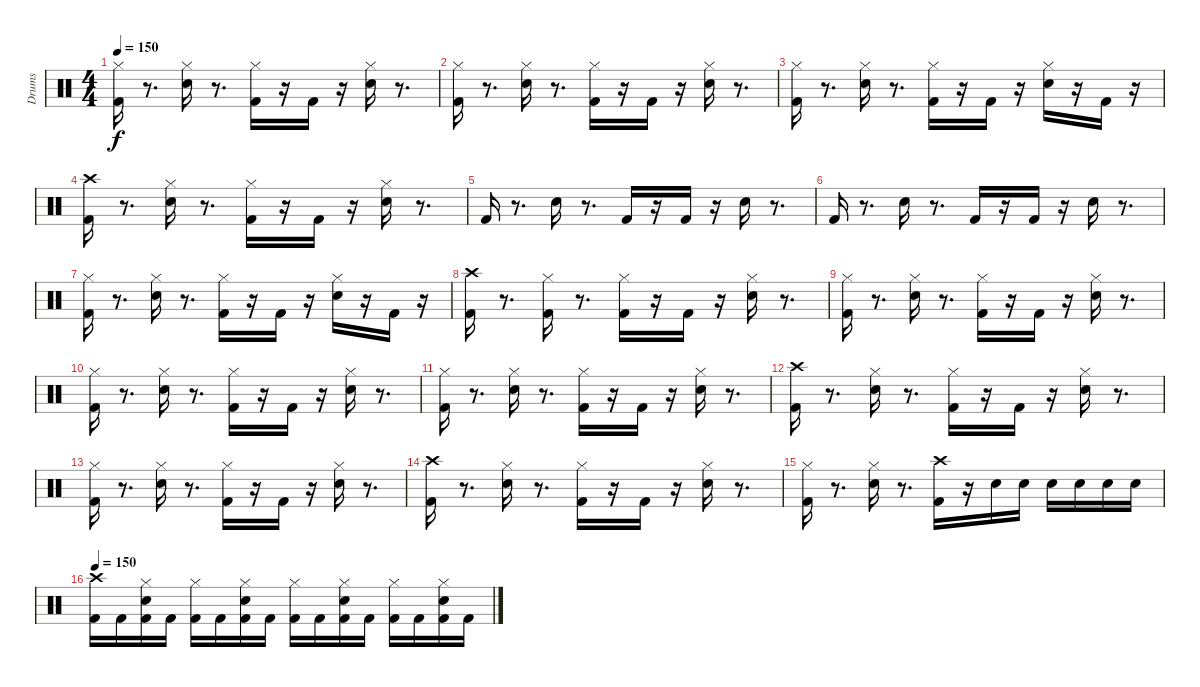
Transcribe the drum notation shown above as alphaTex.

\track ("Drums" "Drums") {instrument percussion}
\staff {score}
\articulation defaults
\ts (4 4)
\tempo 150
\clef neutral
\ks c
("Hi-Hat (closed)" "Kick (hit) 2").16{dy f} r.8{d} ("Hi-Hat (closed)" "Electric Snare (hit)").16 r.8{d} ("Hi-Hat (closed)" "Kick (hit) 2").16 r.16 "Kick (hit) 2".16 r.16 ("Hi-Hat (closed)" "Electric Snare (hit)").16 r.8{d} |
("Hi-Hat (closed)" "Kick (hit) 2").16 r.8{d} ("Hi-Hat (closed)" "Electric Snare (hit)").16 r.8{d} ("Hi-Hat (closed)" "Kick (hit) 2").16 r.16 "Kick (hit) 2".16 r.16 ("Hi-Hat (closed)" "Electric Snare (hit)").16 r.8{d} |
("Hi-Hat (closed)" "Kick (hit) 2").16 r.8{d} ("Hi-Hat (closed)" "Electric Snare (hit)").16 r.8{d} ("Hi-Hat (closed)" "Kick (hit) 2").16 r.16 "Kick (hit) 2".16 r.16 ("Hi-Hat (closed)" "Electric Snare (hit)").16 r.16 "Kick (hit) 2".16 r.16 |
("Crash high (hit)" "Kick (hit) 2").16 r.8{d} ("Hi-Hat (closed)" "Electric Snare (hit)").16 r.8{d} ("Hi-Hat (closed)" "Kick (hit) 2").16 r.16 "Kick (hit) 2".16 r.16 ("Hi-Hat (closed)" "Electric Snare (hit)").16 r.8{d} |
"Kick (hit) 2".16 r.8{d} "Electric Snare (hit)".16 r.8{d} "Kick (hit) 2".16 r.16 "Kick (hit) 2".16 r.16 "Electric Snare (hit)".16 r.8{d} |
"Kick (hit) 2".16 r.8{d} "Electric Snare (hit)".16 r.8{d} "Kick (hit) 2".16 r.16 "Kick (hit) 2".16 r.16 "Electric Snare (hit)".16 r.8{d} |
("Hi-Hat (closed)" "Kick (hit) 2").16 r.8{d} ("Hi-Hat (closed)" "Electric Snare (hit)").16 r.8{d} ("Hi-Hat (closed)" "Kick (hit) 2").16 r.16 "Kick (hit) 2".16 r.16 ("Hi-Hat (closed)" "Electric Snare (hit)").16 r.16 "Kick (hit) 2".16 r.16 |
("Crash high (hit)" "Kick (hit) 2").16 r.8{d} ("Hi-Hat (closed)" "Kick (hit) 2").16 r.8{d} ("Hi-Hat (closed)" "Kick (hit) 2").16 r.16 "Kick (hit) 2".16 r.16 ("Hi-Hat (closed)" "Electric Snare (hit)").16 r.8{d} |
("Hi-Hat (closed)" "Kick (hit) 2").16 r.8{d} ("Hi-Hat (closed)" "Electric Snare (hit)").16 r.8{d} ("Hi-Hat (closed)" "Kick (hit) 2").16 r.16 "Kick (hit) 2".16 r.16 ("Hi-Hat (closed)" "Electric Snare (hit)").16 r.8{d} |
("Hi-Hat (closed)" "Kick (hit) 2").16 r.8{d} ("Hi-Hat (closed)" "Electric Snare (hit)").16 r.8{d} ("Hi-Hat (closed)" "Kick (hit) 2").16 r.16 "Kick (hit) 2".16 r.16 ("Hi-Hat (closed)" "Electric Snare (hit)").16 r.8{d} |
("Hi-Hat (closed)" "Kick (hit) 2").16 r.8{d} ("Hi-Hat (closed)" "Electric Snare (hit)").16 r.8{d} ("Hi-Hat (closed)" "Kick (hit) 2").16 r.16 "Kick (hit) 2".16 r.16 ("Hi-Hat (closed)" "Electric Snare (hit)").16 r.8{d} |
("Crash high (hit)" "Kick (hit) 2").16 r.8{d} ("Hi-Hat (closed)" "Electric Snare (hit)").16 r.8{d} ("Hi-Hat (closed)" "Kick (hit) 2").16 r.16 "Kick (hit) 2".16 r.16 ("Hi-Hat (closed)" "Electric Snare (hit)").16 r.8{d} |
("Hi-Hat (closed)" "Kick (hit) 2").16 r.8{d} ("Hi-Hat (closed)" "Electric Snare (hit)").16 r.8{d} ("Hi-Hat (closed)" "Kick (hit) 2").16 r.16 "Kick (hit) 2".16 r.16 ("Hi-Hat (closed)" "Electric Snare (hit)").16 r.8{d} |
("Crash high (hit)" "Kick (hit) 2").16 r.8{d} ("Hi-Hat (closed)" "Electric Snare (hit)").16 r.8{d} ("Hi-Hat (closed)" "Kick (hit) 2").16 r.16 "Kick (hit) 2".16 r.16 ("Hi-Hat (closed)" "Electric Snare (hit)").16 r.8{d} |
("Hi-Hat (closed)" "Kick (hit) 2").16 r.8{d} ("Hi-Hat (closed)" "Electric Snare (hit)").16 r.8{d} ("Crash high (hit)" "Kick (hit) 2").16 r.16 "Electric Snare (hit)".16 "Electric Snare (hit)".16 "Electric Snare (hit)".16 "Electric Snare (hit)".16 "Electric Snare (hit)".16 "Electric Snare (hit)".16 |
\tempo 150
("Crash high (hit)" "Kick (hit) 2").16 "Kick (hit) 2".16 ("Hi-Hat (closed)" "Electric Snare (hit)" "Kick (hit) 2").16 "Kick (hit) 2".16 ("Hi-Hat (closed)" "Kick (hit) 2").16 "Kick (hit) 2".16 ("Hi-Hat (closed)" "Electric Snare (hit)" "Kick (hit) 2").16 "Kick (hit) 2".16 ("Hi-Hat (closed)" "Kick (hit) 2").16 "Kick (hit) 2".16 ("Hi-Hat (closed)" "Electric Snare (hit)" "Kick (hit) 2").16 "Kick (hit) 2".16 ("Hi-Hat (closed)" "Kick (hit) 2").16 "Kick (hit) 2".16 ("Hi-Hat (closed)" "Electric Snare (hit)" "Kick (hit) 2").16 "Kick (hit) 2".16
